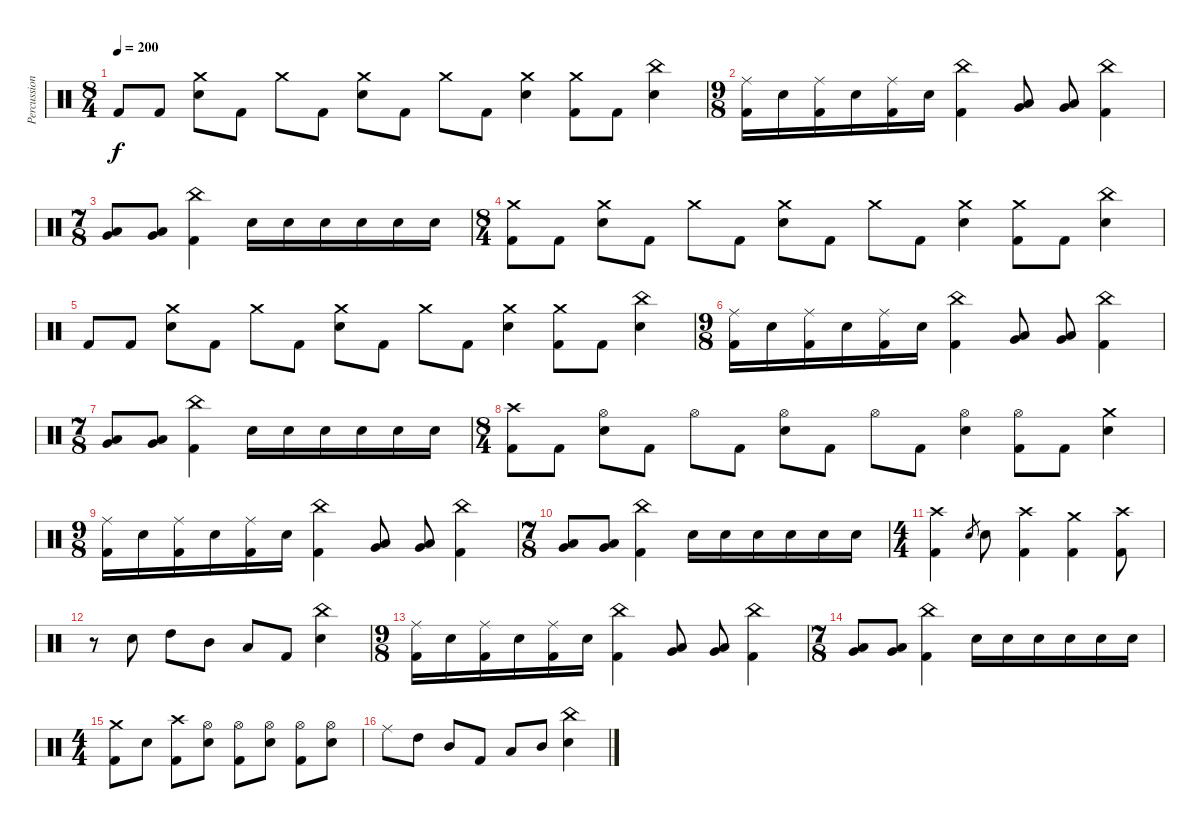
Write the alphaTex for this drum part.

\track ("Percussion" "Percussion") {instrument percussion}
\staff {score}
\articulation defaults
\ts (8 4)
\tempo 200
\clef neutral
\ks c "Kick (hit) 2".8{dy f} "Kick (hit) 2".8
("Electric Snare (hit)" "Crash medium (hit)").8 "Kick (hit) 2".8 "Crash medium (hit)".8 "Kick (hit) 2".8 ("Crash medium (hit)" "Electric Snare (hit)").8 "Kick (hit) 2".8 "Crash medium (hit)".8 "Kick (hit) 2".8 ("Crash medium (hit)" "Electric Snare (hit)").4 ("Kick (hit) 2" "Crash medium (hit)").8 "Kick (hit) 2".8 ("China (hit)" "Electric Snare (hit)").4 |
\ts (9 8)
("Ride (middle)" "Kick (hit) 2").16 "Electric Snare (hit)".16 ("Ride (middle)" "Kick (hit) 2").16 "Electric Snare (hit)".16 ("Ride (middle)" "Kick (hit) 2").16 "Electric Snare (hit)".16 ("China (hit)" "Kick (hit) 2").4 ("Low Tom (hit)" "Very Low Tom (hit)").8 ("Low Tom (hit)" "Very Low Tom (hit)").8 ("China (hit)" "Kick (hit) 2").4 |
\ts (7 8)
("Low Tom (hit)" "Very Low Tom (hit)").8 ("Low Tom (hit)" "Very Low Tom (hit)").8 ("China (hit)" "Kick (hit) 2").4 "Electric Snare (hit)".16 "Electric Snare (hit)".16 "Electric Snare (hit)".16 "Electric Snare (hit)".16 "Electric Snare (hit)".16 "Electric Snare (hit)".16 |
\ts (8 4)
("Crash medium (hit)" "Kick (hit) 2").8 "Kick (hit) 2".8 ("Electric Snare (hit)" "Crash medium (hit)").8 "Kick (hit) 2".8 "Crash medium (hit)".8 "Kick (hit) 2".8 ("Crash medium (hit)" "Electric Snare (hit)").8 "Kick (hit) 2".8 "Crash medium (hit)".8 "Kick (hit) 2".8 ("Crash medium (hit)" "Electric Snare (hit)").4 ("Kick (hit) 2" "Crash medium (hit)").8 "Kick (hit) 2".8 ("China (hit)" "Electric Snare (hit)").4 |
"Kick (hit) 2".8 "Kick (hit) 2".8 ("Electric Snare (hit)" "Crash medium (hit)").8 "Kick (hit) 2".8 "Crash medium (hit)".8 "Kick (hit) 2".8 ("Crash medium (hit)" "Electric Snare (hit)").8 "Kick (hit) 2".8 "Crash medium (hit)".8 "Kick (hit) 2".8 ("Crash medium (hit)" "Electric Snare (hit)").4 ("Kick (hit) 2" "Crash medium (hit)").8 "Kick (hit) 2".8 ("China (hit)" "Electric Snare (hit)").4 |
\ts (9 8)
("Ride (middle)" "Kick (hit) 2").16 "Electric Snare (hit)".16 ("Ride (middle)" "Kick (hit) 2").16 "Electric Snare (hit)".16 ("Ride (middle)" "Kick (hit) 2").16 "Electric Snare (hit)".16 ("China (hit)" "Kick (hit) 2").4 ("Low Tom (hit)" "Very Low Tom (hit)").8 ("Low Tom (hit)" "Very Low Tom (hit)").8 ("China (hit)" "Kick (hit) 2").4 |
\ts (7 8)
("Low Tom (hit)" "Very Low Tom (hit)").8 ("Low Tom (hit)" "Very Low Tom (hit)").8 ("China (hit)" "Kick (hit) 2").4 "Electric Snare (hit)".16 "Electric Snare (hit)".16 "Electric Snare (hit)".16 "Electric Snare (hit)".16 "Electric Snare (hit)".16 "Electric Snare (hit)".16 |
\ts (8 4)
("Crash high (hit)" "Kick (hit) 2").8 "Kick (hit) 2".8 ("Hi-Hat (open)" "Electric Snare (hit)").8 "Kick (hit) 2".8 "Hi-Hat (open)".8 "Kick (hit) 2".8 ("Hi-Hat (open)" "Electric Snare (hit)").8 "Kick (hit) 2".8 "Hi-Hat (open)".8 "Kick (hit) 2".8 ("Hi-Hat (open)" "Electric Snare (hit)").4 ("Kick (hit) 2" "Hi-Hat (open)").8 "Kick (hit) 2".8 ("Crash medium (hit)" "Electric Snare (hit)").4 |
\ts (9 8)
("Ride (middle)" "Kick (hit) 2").16 "Electric Snare (hit)".16 ("Ride (middle)" "Kick (hit) 2").16 "Electric Snare (hit)".16 ("Ride (middle)" "Kick (hit) 2").16 "Electric Snare (hit)".16 ("China (hit)" "Kick (hit) 2").4 ("Low Tom (hit)" "Very Low Tom (hit)").8 ("Low Tom (hit)" "Very Low Tom (hit)").8 ("China (hit)" "Kick (hit) 2").4 |
\ts (7 8)
("Low Tom (hit)" "Very Low Tom (hit)").8 ("Low Tom (hit)" "Very Low Tom (hit)").8 ("China (hit)" "Kick (hit) 2").4 "Electric Snare (hit)".16 "Electric Snare (hit)".16 "Electric Snare (hit)".16 "Electric Snare (hit)".16 "Electric Snare (hit)".16 "Electric Snare (hit)".16 |
\ts (4 4)
("Crash high (hit)" "Kick (hit) 2").4 "Electric Snare (hit)".8{gr} "Electric Snare (hit)".8 ("Crash high (hit)" "Kick (hit) 2").4 ("Crash medium (hit)" "Kick (hit) 2").4 ("Crash high (hit)" "Kick (hit) 2").8 |
r.8 "Electric Snare (hit)".8 "High Tom (hit)".8 "Mid Tom (hit)".8 "Low Tom (hit)".8 "Kick (hit) 2".8 ("China (hit)" "Electric Snare (hit)").4 |
\ts (9 8)
("Ride (middle)" "Kick (hit) 2").16 "Electric Snare (hit)".16 ("Ride (middle)" "Kick (hit) 2").16 "Electric Snare (hit)".16 ("Ride (middle)" "Kick (hit) 2").16 "Electric Snare (hit)".16 ("China (hit)" "Kick (hit) 2").4 ("Low Tom (hit)" "Very Low Tom (hit)").8 ("Low Tom (hit)" "Very Low Tom (hit)").8 ("China (hit)" "Kick (hit) 2").4 |
\ts (7 8)
("Low Tom (hit)" "Very Low Tom (hit)").8 ("Low Tom (hit)" "Very Low Tom (hit)").8 ("China (hit)" "Kick (hit) 2").4 "Electric Snare (hit)".16 "Electric Snare (hit)".16 "Electric Snare (hit)".16 "Electric Snare (hit)".16 "Electric Snare (hit)".16 "Electric Snare (hit)".16 |
\ts (4 4)
("Crash medium (hit)" "Kick (hit) 2").8 "Electric Snare (hit)".8 ("Crash high (hit)" "Kick (hit) 2").8 ("Electric Snare (hit)" "Hi-Hat (open)").8 ("Hi-Hat (open)" "Kick (hit) 2").8 ("Electric Snare (hit)" "Hi-Hat (open)").8 ("Hi-Hat (open)" "Kick (hit) 2").8 ("Electric Snare (hit)" "Hi-Hat (open)").8 |
"Ride (middle)".8 "High Tom (hit)".8 "Mid Tom (hit)".8 "Kick (hit) 2".8 "Low Tom (hit)".8 "Mid Tom (hit)".8 ("China (hit)" "Electric Snare (hit)").4
